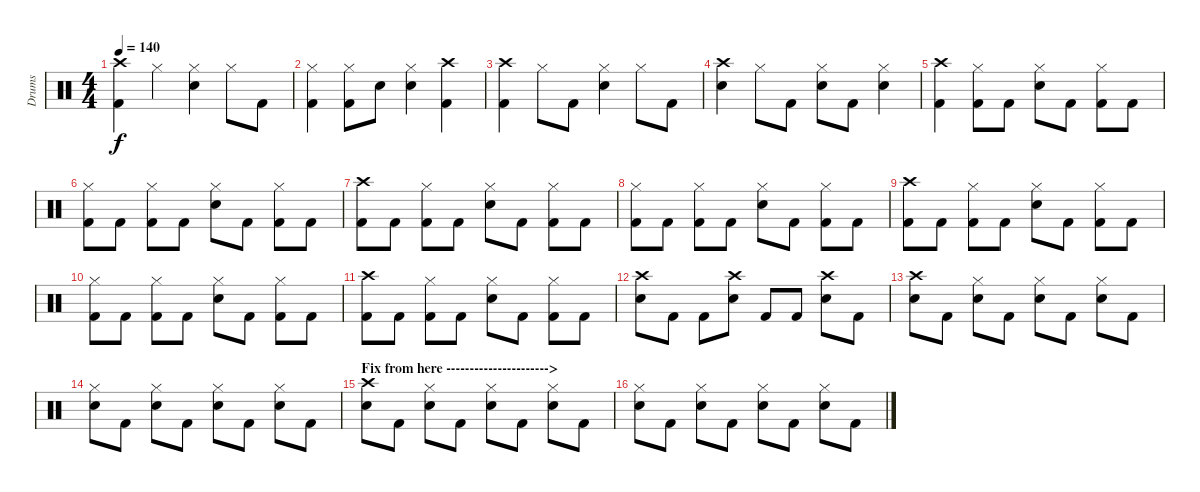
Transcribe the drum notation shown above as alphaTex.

\track ("Drums" "Drums") {instrument percussion}
\staff {score}
\articulation defaults
\ts (4 4)
\tempo 140
\clef neutral
\ks c
("Crash high (hit)" "Kick (hit) 2").4{dy f} "Hi-Hat (closed)".4 ("Hi-Hat (closed)" "Electric Snare (hit)").4 "Hi-Hat (closed)".8 "Kick (hit) 2".8 |
("Hi-Hat (closed)" "Kick (hit) 2").4 ("Hi-Hat (closed)" "Kick (hit) 2").8 "Snare (hit)".8 ("Hi-Hat (closed)" "Electric Snare (hit)").4 ("Crash high (hit)" "Kick (hit) 2").4 |
("Crash high (hit)" "Kick (hit) 2").4 "Hi-Hat (closed)".8 "Kick (hit) 2".8 ("Hi-Hat (closed)" "Electric Snare (hit)").4 "Hi-Hat (closed)".8 "Kick (hit) 2".8 |
("Crash high (hit)" "Electric Snare (hit)").4 "Hi-Hat (closed)".8 "Kick (hit) 2".8 ("Hi-Hat (closed)" "Electric Snare (hit)").8 "Kick (hit) 2".8 ("Hi-Hat (closed)" "Electric Snare (hit)").4 |
("Crash high (hit)" "Kick (hit) 2").4 ("Hi-Hat (closed)" "Kick (hit) 2").8 "Kick (hit) 2".8 ("Hi-Hat (closed)" "Electric Snare (hit)").8 "Kick (hit) 2".8 ("Hi-Hat (closed)" "Kick (hit) 2").8 "Kick (hit) 2".8 |
("Hi-Hat (closed)" "Kick (hit) 2").8 "Kick (hit) 2".8 ("Hi-Hat (closed)" "Kick (hit) 2").8 "Kick (hit) 2".8 ("Hi-Hat (closed)" "Electric Snare (hit)").8 "Kick (hit) 2".8 ("Hi-Hat (closed)" "Kick (hit) 2").8 "Kick (hit) 2".8 |
("Crash high (hit)" "Kick (hit) 2").8 "Kick (hit) 2".8 ("Hi-Hat (closed)" "Kick (hit) 2").8 "Kick (hit) 2".8 ("Hi-Hat (closed)" "Electric Snare (hit)").8 "Kick (hit) 2".8 ("Hi-Hat (closed)" "Kick (hit) 2").8 "Kick (hit) 2".8 |
("Hi-Hat (closed)" "Kick (hit) 2").8 "Kick (hit) 2".8 ("Hi-Hat (closed)" "Kick (hit) 2").8 "Kick (hit) 2".8 ("Hi-Hat (closed)" "Electric Snare (hit)").8 "Kick (hit) 2".8 ("Hi-Hat (closed)" "Kick (hit) 2").8 "Kick (hit) 2".8 |
("Crash high (hit)" "Kick (hit) 2").8 "Kick (hit) 2".8 ("Hi-Hat (closed)" "Kick (hit) 2").8 "Kick (hit) 2".8 ("Hi-Hat (closed)" "Electric Snare (hit)").8 "Kick (hit) 2".8 ("Hi-Hat (closed)" "Kick (hit) 2").8 "Kick (hit) 2".8 |
("Hi-Hat (closed)" "Kick (hit) 2").8 "Kick (hit) 2".8 ("Hi-Hat (closed)" "Kick (hit) 2").8 "Kick (hit) 2".8 ("Hi-Hat (closed)" "Electric Snare (hit)").8 "Kick (hit) 2".8 ("Hi-Hat (closed)" "Kick (hit) 2").8 "Kick (hit) 2".8 |
("Crash high (hit)" "Kick (hit) 2").8 "Kick (hit) 2".8 ("Hi-Hat (closed)" "Kick (hit) 2").8 "Kick (hit) 2".8 ("Hi-Hat (closed)" "Electric Snare (hit)").8 "Kick (hit) 2".8 ("Hi-Hat (closed)" "Kick (hit) 2").8 "Kick (hit) 2".8 |
("Crash high (hit)" "Electric Snare (hit)").8 "Kick (hit) 2".8 "Kick (hit) 2".8 ("Crash high (hit)" "Electric Snare (hit)").8 "Kick (hit) 2".8 "Kick (hit) 2".8 ("Crash high (hit)" "Electric Snare (hit)").8 "Kick (hit) 2".8 |
("Crash high (hit)" "Electric Snare (hit)").8 "Kick (hit) 2".8 ("Hi-Hat (closed)" "Electric Snare (hit)").8 "Kick (hit) 2".8 ("Hi-Hat (closed)" "Electric Snare (hit)").8 "Kick (hit) 2".8 ("Hi-Hat (closed)" "Electric Snare (hit)").8 "Kick (hit) 2".8 |
("Hi-Hat (closed)" "Electric Snare (hit)").8 "Kick (hit) 2".8 ("Hi-Hat (closed)" "Electric Snare (hit)").8 "Kick (hit) 2".8 ("Hi-Hat (closed)" "Electric Snare (hit)").8 "Kick (hit) 2".8 ("Hi-Hat (closed)" "Electric Snare (hit)").8 "Kick (hit) 2".8 |
\section ("" "Fix from here ---------------------->")
("Crash high (hit)" "Electric Snare (hit)").8 "Kick (hit) 2".8 ("Hi-Hat (closed)" "Electric Snare (hit)").8 "Kick (hit) 2".8 ("Hi-Hat (closed)" "Electric Snare (hit)").8 "Kick (hit) 2".8 ("Hi-Hat (closed)" "Electric Snare (hit)").8 "Kick (hit) 2".8 |
("Hi-Hat (closed)" "Electric Snare (hit)").8 "Kick (hit) 2".8 ("Hi-Hat (closed)" "Electric Snare (hit)").8 "Kick (hit) 2".8 ("Hi-Hat (closed)" "Electric Snare (hit)").8 "Kick (hit) 2".8 ("Hi-Hat (closed)" "Electric Snare (hit)").8 "Kick (hit) 2".8
